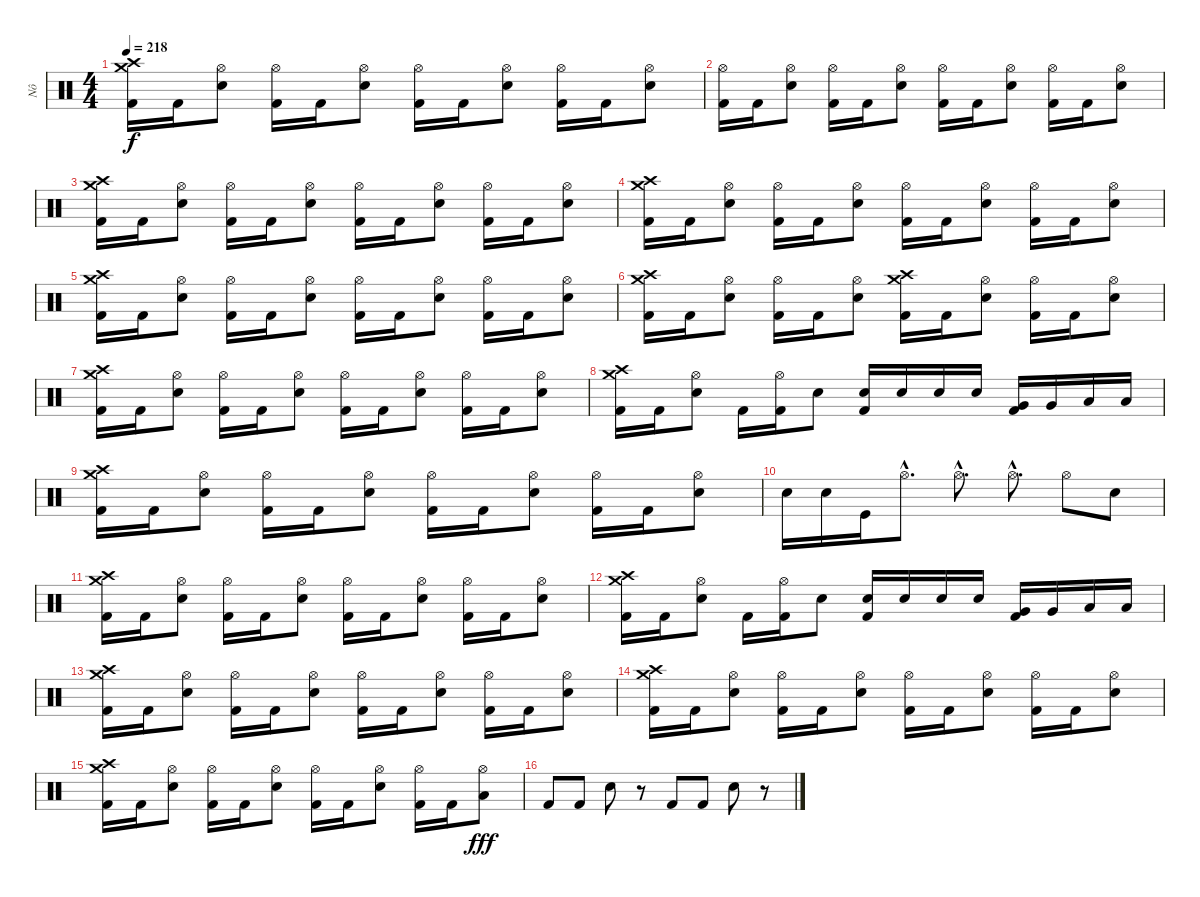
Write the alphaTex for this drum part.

\track ("Nô" "Nô") {instrument percussion}
\staff {score}
\articulation defaults
\ts (4 4)
\tempo 218
\clef neutral
\ks c
("Crash high (hit)" "Crash medium (hit)" "Kick (hit) 2").16{dy f} "Kick (hit) 2".16 ("Hi-Hat (open)" "Electric Snare (hit)").8 ("Hi-Hat (open)" "Kick (hit) 2").16 "Kick (hit) 2".16 ("Hi-Hat (open)" "Electric Snare (hit)").8 ("Hi-Hat (open)" "Kick (hit) 2").16 "Kick (hit) 2".16 ("Hi-Hat (open)" "Electric Snare (hit)").8 ("Hi-Hat (open)" "Kick (hit) 2").16 "Kick (hit) 2".16 ("Hi-Hat (open)" "Electric Snare (hit)").8 |
("Hi-Hat (open)" "Kick (hit) 2").16 "Kick (hit) 2".16 ("Hi-Hat (open)" "Electric Snare (hit)").8 ("Hi-Hat (open)" "Kick (hit) 2").16 "Kick (hit) 2".16 ("Hi-Hat (open)" "Electric Snare (hit)").8 ("Hi-Hat (open)" "Kick (hit) 2").16 "Kick (hit) 2".16 ("Hi-Hat (open)" "Electric Snare (hit)").8 ("Hi-Hat (open)" "Kick (hit) 2").16 "Kick (hit) 2".16 ("Hi-Hat (open)" "Electric Snare (hit)").8 |
("Crash high (hit)" "Crash medium (hit)" "Kick (hit) 2").16 "Kick (hit) 2".16 ("Hi-Hat (open)" "Electric Snare (hit)").8 ("Hi-Hat (open)" "Kick (hit) 2").16 "Kick (hit) 2".16 ("Hi-Hat (open)" "Electric Snare (hit)").8 ("Hi-Hat (open)" "Kick (hit) 2").16 "Kick (hit) 2".16 ("Hi-Hat (open)" "Electric Snare (hit)").8 ("Hi-Hat (open)" "Kick (hit) 2").16 "Kick (hit) 2".16 ("Hi-Hat (open)" "Electric Snare (hit)").8 |
("Crash high (hit)" "Crash medium (hit)" "Kick (hit) 2").16 "Kick (hit) 2".16 ("Hi-Hat (open)" "Electric Snare (hit)").8 ("Hi-Hat (open)" "Kick (hit) 2").16 "Kick (hit) 2".16 ("Hi-Hat (open)" "Electric Snare (hit)").8 ("Hi-Hat (open)" "Kick (hit) 2").16 "Kick (hit) 2".16 ("Hi-Hat (open)" "Electric Snare (hit)").8 ("Hi-Hat (open)" "Kick (hit) 2").16 "Kick (hit) 2".16 ("Hi-Hat (open)" "Electric Snare (hit)").8 |
("Crash high (hit)" "Crash medium (hit)" "Kick (hit) 2").16 "Kick (hit) 2".16 ("Hi-Hat (open)" "Electric Snare (hit)").8 ("Hi-Hat (open)" "Kick (hit) 2").16 "Kick (hit) 2".16 ("Hi-Hat (open)" "Electric Snare (hit)").8 ("Hi-Hat (open)" "Kick (hit) 2").16 "Kick (hit) 2".16 ("Hi-Hat (open)" "Electric Snare (hit)").8 ("Hi-Hat (open)" "Kick (hit) 2").16 "Kick (hit) 2".16 ("Hi-Hat (open)" "Electric Snare (hit)").8 |
("Crash high (hit)" "Crash medium (hit)" "Kick (hit) 2").16 "Kick (hit) 2".16 ("Hi-Hat (open)" "Electric Snare (hit)").8 ("Hi-Hat (open)" "Kick (hit) 2").16 "Kick (hit) 2".16 ("Hi-Hat (open)" "Electric Snare (hit)").8 ("Crash high (hit)" "Crash medium (hit)" "Kick (hit) 2").16 "Kick (hit) 2".16 ("Hi-Hat (open)" "Electric Snare (hit)").8 ("Hi-Hat (open)" "Kick (hit) 2").16 "Kick (hit) 2".16 ("Hi-Hat (open)" "Electric Snare (hit)").8 |
("Crash high (hit)" "Crash medium (hit)" "Kick (hit) 2").16 "Kick (hit) 2".16 ("Hi-Hat (open)" "Electric Snare (hit)").8 ("Hi-Hat (open)" "Kick (hit) 2").16 "Kick (hit) 2".16 ("Hi-Hat (open)" "Electric Snare (hit)").8 ("Hi-Hat (open)" "Kick (hit) 2").16 "Kick (hit) 2".16 ("Hi-Hat (open)" "Electric Snare (hit)").8 ("Hi-Hat (open)" "Kick (hit) 2").16 "Kick (hit) 2".16 ("Hi-Hat (open)" "Electric Snare (hit)").8 |
("Crash high (hit)" "Crash medium (hit)" "Kick (hit) 2").16 "Kick (hit) 2".16 ("Hi-Hat (open)" "Electric Snare (hit)").8 "Kick (hit) 2".16 ("Hi-Hat (open)" "Kick (hit) 2").16 "Electric Snare (hit)".8 ("Electric Snare (hit)" "Kick (hit) 2").16 "Electric Snare (hit)".16 "Electric Snare (hit)".16 "Electric Snare (hit)".16 ("Very Low Tom (hit)" "Kick (hit) 2").16 "Very Low Tom (hit)".16 "Low Floor Tom (hit)".16 "Low Floor Tom (hit)".16 |
("Crash high (hit)" "Crash medium (hit)" "Kick (hit) 2").16 "Kick (hit) 2".16 ("Hi-Hat (open)" "Electric Snare (hit)").8 ("Hi-Hat (open)" "Kick (hit) 2").16 "Kick (hit) 2".16 ("Hi-Hat (open)" "Electric Snare (hit)").8 ("Hi-Hat (open)" "Kick (hit) 2").16 "Kick (hit) 2".16 ("Hi-Hat (open)" "Electric Snare (hit)").8 ("Hi-Hat (open)" "Kick (hit) 2").16 "Kick (hit) 2".16 ("Hi-Hat (open)" "Electric Snare (hit)").8 |
"Electric Snare (hit)".16 "Electric Snare (hit)".16 "Kick (hit)".16 "Hi-Hat (open)"{hac}.8{d} "Hi-Hat (open)"{hac}.8{d} "Hi-Hat (open)"{hac}.8{d} "Hi-Hat (open)".8 "Electric Snare (hit)".8 |
("Crash high (hit)" "Crash medium (hit)" "Kick (hit) 2").16 "Kick (hit) 2".16 ("Hi-Hat (open)" "Electric Snare (hit)").8 ("Hi-Hat (open)" "Kick (hit) 2").16 "Kick (hit) 2".16 ("Hi-Hat (open)" "Electric Snare (hit)").8 ("Hi-Hat (open)" "Kick (hit) 2").16 "Kick (hit) 2".16 ("Hi-Hat (open)" "Electric Snare (hit)").8 ("Hi-Hat (open)" "Kick (hit) 2").16 "Kick (hit) 2".16 ("Hi-Hat (open)" "Electric Snare (hit)").8 |
("Crash high (hit)" "Crash medium (hit)" "Kick (hit) 2").16 "Kick (hit) 2".16 ("Hi-Hat (open)" "Electric Snare (hit)").8 "Kick (hit) 2".16 ("Hi-Hat (open)" "Kick (hit) 2").16 "Electric Snare (hit)".8 ("Electric Snare (hit)" "Kick (hit) 2").16 "Electric Snare (hit)".16 "Electric Snare (hit)".16 "Electric Snare (hit)".16 ("Very Low Tom (hit)" "Kick (hit) 2").16 "Very Low Tom (hit)".16 "Low Floor Tom (hit)".16 "Low Floor Tom (hit)".16 |
("Crash high (hit)" "Crash medium (hit)" "Kick (hit) 2").16 "Kick (hit) 2".16 ("Hi-Hat (open)" "Electric Snare (hit)").8 ("Hi-Hat (open)" "Kick (hit) 2").16 "Kick (hit) 2".16 ("Hi-Hat (open)" "Electric Snare (hit)").8 ("Hi-Hat (open)" "Kick (hit) 2").16 "Kick (hit) 2".16 ("Hi-Hat (open)" "Electric Snare (hit)").8 ("Hi-Hat (open)" "Kick (hit) 2").16 "Kick (hit) 2".16 ("Hi-Hat (open)" "Electric Snare (hit)").8 |
("Crash high (hit)" "Crash medium (hit)" "Kick (hit) 2").16 "Kick (hit) 2".16 ("Hi-Hat (open)" "Electric Snare (hit)").8 ("Hi-Hat (open)" "Kick (hit) 2").16 "Kick (hit) 2".16 ("Hi-Hat (open)" "Electric Snare (hit)").8 ("Hi-Hat (open)" "Kick (hit) 2").16 "Kick (hit) 2".16 ("Hi-Hat (open)" "Electric Snare (hit)").8 ("Hi-Hat (open)" "Kick (hit) 2").16 "Kick (hit) 2".16 ("Hi-Hat (open)" "Electric Snare (hit)").8 |
("Crash high (hit)" "Crash medium (hit)" "Kick (hit) 2").16 "Kick (hit) 2".16 ("Hi-Hat (open)" "Electric Snare (hit)").8 ("Hi-Hat (open)" "Kick (hit) 2").16 "Kick (hit) 2".16 ("Hi-Hat (open)" "Electric Snare (hit)").8 ("Hi-Hat (open)" "Kick (hit) 2").16 "Kick (hit) 2".16 ("Hi-Hat (open)" "Electric Snare (hit)").8 ("Hi-Hat (open)" "Kick (hit) 2").16 "Kick (hit) 2".16 ("Hi-Hat (open)" "Low Floor Tom (hit)").8{dy fff} |
"Kick (hit) 2".8 "Kick (hit) 2".8 "Electric Snare (hit)".8 r.8 "Kick (hit) 2".8 "Kick (hit) 2".8 "Electric Snare (hit)".8 r.8
